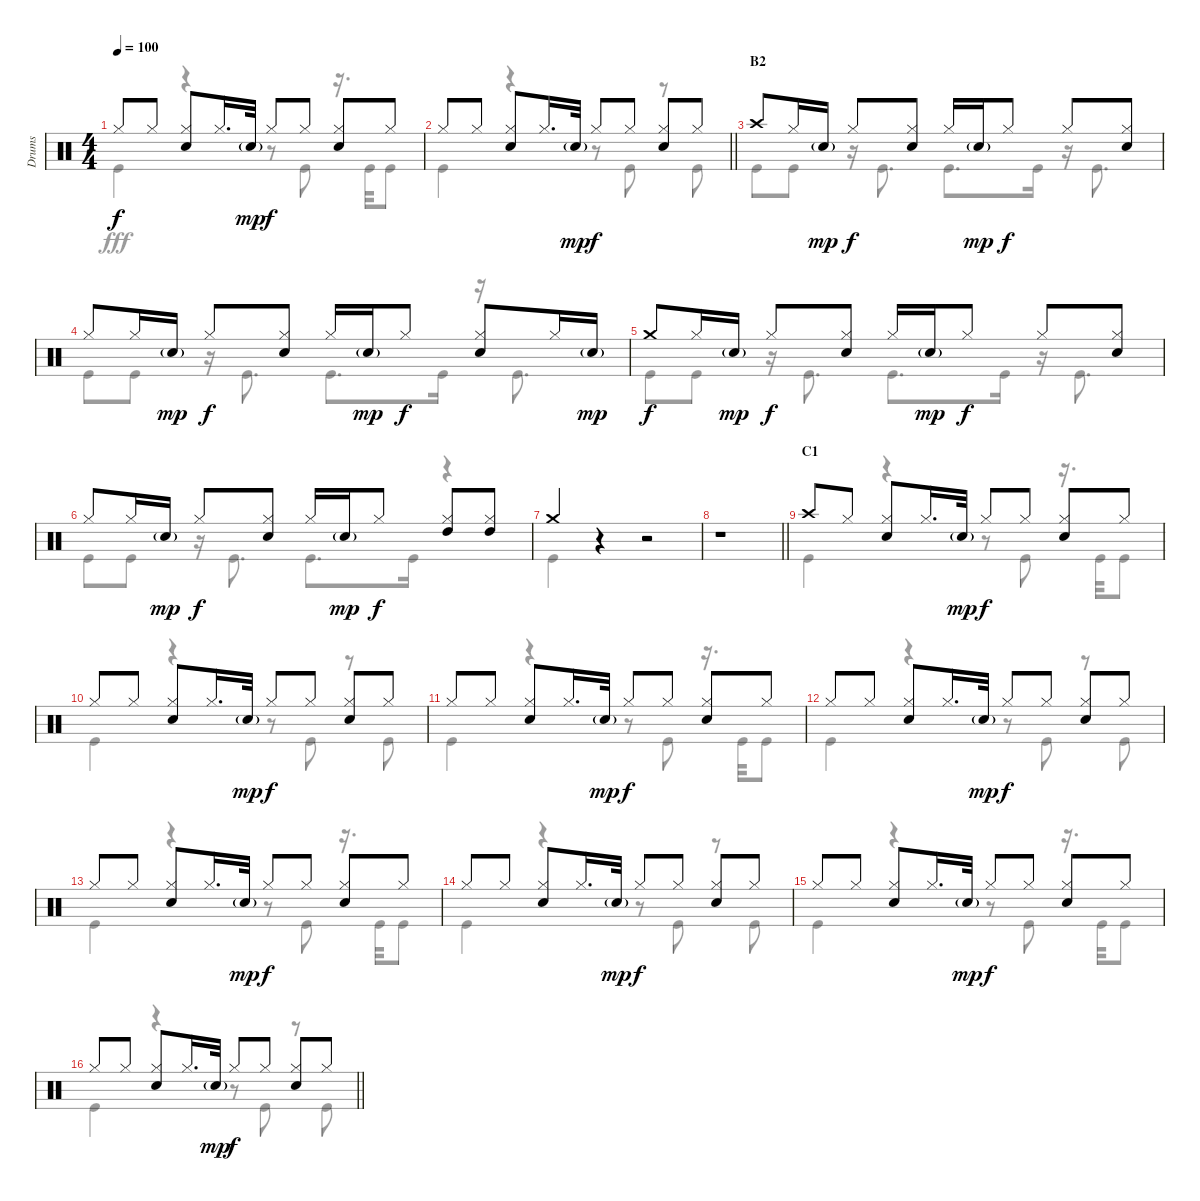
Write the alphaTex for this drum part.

\track ("Drums" "Drums") {instrument percussion}
\staff {score}
\articulation defaults
\voice
\ts (4 4)
\tempo 100
\clef neutral
\ks c "Hi-Hat (closed)".8{dy f} "Hi-Hat (closed)".8
("Hi-Hat (closed)" "Snare (hit) 2").8 "Hi-Hat (closed)".16{d} "Snare (hit) 2"{g}.32{dy mp} "Hi-Hat (closed)".8{dy f} "Hi-Hat (closed)".8 ("Hi-Hat (closed)" "Snare (hit) 2").8 "Hi-Hat (closed)".8 |
\barLineRight lightlight "Hi-Hat (closed)".8 "Hi-Hat (closed)".8
("Hi-Hat (closed)" "Snare (hit) 2").8 "Hi-Hat (closed)".16{d} "Snare (hit) 2"{g}.32{dy mp} "Hi-Hat (closed)".8{dy f} "Hi-Hat (closed)".8 ("Hi-Hat (closed)" "Snare (hit) 2").8 "Hi-Hat (closed)".8 |
\section ("" "B2")
"Crash high (hit)".8 "Hi-Hat (closed)".16 "Snare (hit) 2"{g}.16{dy mp} "Hi-Hat (closed)".8{dy f} ("Hi-Hat (closed)" "Snare (hit) 2").8 "Hi-Hat (closed)".16 "Snare (hit) 2"{g}.16{dy mp} "Hi-Hat (closed)".8{dy f} "Hi-Hat (closed)".8 ("Hi-Hat (closed)" "Snare (hit) 2").8 |
"Hi-Hat (closed)".8 "Hi-Hat (closed)".16 "Snare (hit) 2"{g}.16{dy mp} "Hi-Hat (closed)".8{dy f} ("Hi-Hat (closed)" "Snare (hit) 2").8 "Hi-Hat (closed)".16 "Snare (hit) 2"{g}.16{dy mp} "Hi-Hat (closed)".8{dy f} ("Hi-Hat (closed)" "Snare (hit) 2").8 "Hi-Hat (closed)".16 "Snare (hit) 2"{g}.16{dy mp} |
"Crash medium (hit)".8{dy f} "Hi-Hat (closed)".16 "Snare (hit) 2"{g}.16{dy mp} "Hi-Hat (closed)".8{dy f} ("Hi-Hat (closed)" "Snare (hit) 2").8 "Hi-Hat (closed)".16 "Snare (hit) 2"{g}.16{dy mp} "Hi-Hat (closed)".8{dy f} "Hi-Hat (closed)".8 ("Hi-Hat (closed)" "Snare (hit) 2").8 |
"Hi-Hat (closed)".8 "Hi-Hat (closed)".16 "Snare (hit) 2"{g}.16{dy mp} "Hi-Hat (closed)".8{dy f} ("Hi-Hat (closed)" "Snare (hit) 2").8 "Hi-Hat (closed)".16 "Snare (hit) 2"{g}.16{dy mp} "Hi-Hat (closed)".8{dy f} ("Hi-Hat (closed)" "High Tom (hit)").8 ("Hi-Hat (closed)" "High Tom (hit)").8 |
"Crash medium (hit)".4 r.4 r.2 |
\barLineRight lightlight
r.1 |
\section ("" "C1")
"Crash high (hit)".8 "Hi-Hat (closed)".8 ("Hi-Hat (closed)" "Snare (hit) 2").8 "Hi-Hat (closed)".16{d} "Snare (hit) 2"{g}.32{dy mp} "Hi-Hat (closed)".8{dy f} "Hi-Hat (closed)".8 ("Hi-Hat (closed)" "Snare (hit) 2").8 "Hi-Hat (closed)".8 |
"Hi-Hat (closed)".8 "Hi-Hat (closed)".8 ("Hi-Hat (closed)" "Snare (hit) 2").8 "Hi-Hat (closed)".16{d} "Snare (hit) 2"{g}.32{dy mp} "Hi-Hat (closed)".8{dy f} "Hi-Hat (closed)".8 ("Hi-Hat (closed)" "Snare (hit) 2").8 "Hi-Hat (closed)".8 |
"Hi-Hat (closed)".8 "Hi-Hat (closed)".8 ("Hi-Hat (closed)" "Snare (hit) 2").8 "Hi-Hat (closed)".16{d} "Snare (hit) 2"{g}.32{dy mp} "Hi-Hat (closed)".8{dy f} "Hi-Hat (closed)".8 ("Hi-Hat (closed)" "Snare (hit) 2").8 "Hi-Hat (closed)".8 |
"Hi-Hat (closed)".8 "Hi-Hat (closed)".8 ("Hi-Hat (closed)" "Snare (hit) 2").8 "Hi-Hat (closed)".16{d} "Snare (hit) 2"{g}.32{dy mp} "Hi-Hat (closed)".8{dy f} "Hi-Hat (closed)".8 ("Hi-Hat (closed)" "Snare (hit) 2").8 "Hi-Hat (closed)".8 |
"Hi-Hat (closed)".8 "Hi-Hat (closed)".8 ("Hi-Hat (closed)" "Snare (hit) 2").8 "Hi-Hat (closed)".16{d} "Snare (hit) 2"{g}.32{dy mp} "Hi-Hat (closed)".8{dy f} "Hi-Hat (closed)".8 ("Hi-Hat (closed)" "Snare (hit) 2").8 "Hi-Hat (closed)".8 |
"Hi-Hat (closed)".8 "Hi-Hat (closed)".8 ("Hi-Hat (closed)" "Snare (hit) 2").8 "Hi-Hat (closed)".16{d} "Snare (hit) 2"{g}.32{dy mp} "Hi-Hat (closed)".8{dy f} "Hi-Hat (closed)".8 ("Hi-Hat (closed)" "Snare (hit) 2").8 "Hi-Hat (closed)".8 |
"Hi-Hat (closed)".8 "Hi-Hat (closed)".8 ("Hi-Hat (closed)" "Snare (hit) 2").8 "Hi-Hat (closed)".16{d} "Snare (hit) 2"{g}.32{dy mp} "Hi-Hat (closed)".8{dy f} "Hi-Hat (closed)".8 ("Hi-Hat (closed)" "Snare (hit) 2").8 "Hi-Hat (closed)".8 |
\barLineRight lightlight "Hi-Hat (closed)".8 "Hi-Hat (closed)".8
("Hi-Hat (closed)" "Snare (hit) 2").8 "Hi-Hat (closed)".16{d} "Snare (hit) 2"{g}.32{dy mp} "Hi-Hat (closed)".8{dy f} "Hi-Hat (closed)".8 ("Hi-Hat (closed)" "Snare (hit) 2").8 "Hi-Hat (closed)".8
\voice
\clef neutral
\ottava regular
\simile none
\ks c "Kick (hit)".4{dy fff}
r.4 r.8 "Kick (hit)".8 r.16{d} "Kick (hit)".32 "Kick (hit)".8 |
\barLineRight lightlight "Kick (hit)".4
r.4 r.8 "Kick (hit)".8 r.8 "Kick (hit)".8 |
"Kick (hit)".8 "Kick (hit)".8 r.16 "Kick (hit)".8{d} "Kick (hit)".8{d} "Kick (hit)".16 r.16 "Kick (hit)".8{d} |
"Kick (hit)".8 "Kick (hit)".8 r.16 "Kick (hit)".8{d} "Kick (hit)".8{d} "Kick (hit)".16 r.16 "Kick (hit)".8{d} |
"Kick (hit)".8 "Kick (hit)".8 r.16 "Kick (hit)".8{d} "Kick (hit)".8{d} "Kick (hit)".16 r.16 "Kick (hit)".8{d} |
"Kick (hit)".8 "Kick (hit)".8 r.16 "Kick (hit)".8{d} "Kick (hit)".8{d} "Kick (hit)".16 r.4 |
"Kick (hit)".4 r.4 r.2 |
\barLineRight lightlight
r.1 |
"Kick (hit)".4 r.4 r.8 "Kick (hit)".8 r.16{d} "Kick (hit)".32 "Kick (hit)".8 |
"Kick (hit)".4 r.4 r.8 "Kick (hit)".8 r.8 "Kick (hit)".8 |
"Kick (hit)".4 r.4 r.8 "Kick (hit)".8 r.16{d} "Kick (hit)".32 "Kick (hit)".8 |
"Kick (hit)".4 r.4 r.8 "Kick (hit)".8 r.8 "Kick (hit)".8 |
"Kick (hit)".4 r.4 r.8 "Kick (hit)".8 r.16{d} "Kick (hit)".32 "Kick (hit)".8 |
"Kick (hit)".4 r.4 r.8 "Kick (hit)".8 r.8 "Kick (hit)".8 |
"Kick (hit)".4 r.4 r.8 "Kick (hit)".8 r.16{d} "Kick (hit)".32 "Kick (hit)".8 |
\barLineRight lightlight "Kick (hit)".4
r.4 r.8 "Kick (hit)".8 r.8 "Kick (hit)".8
